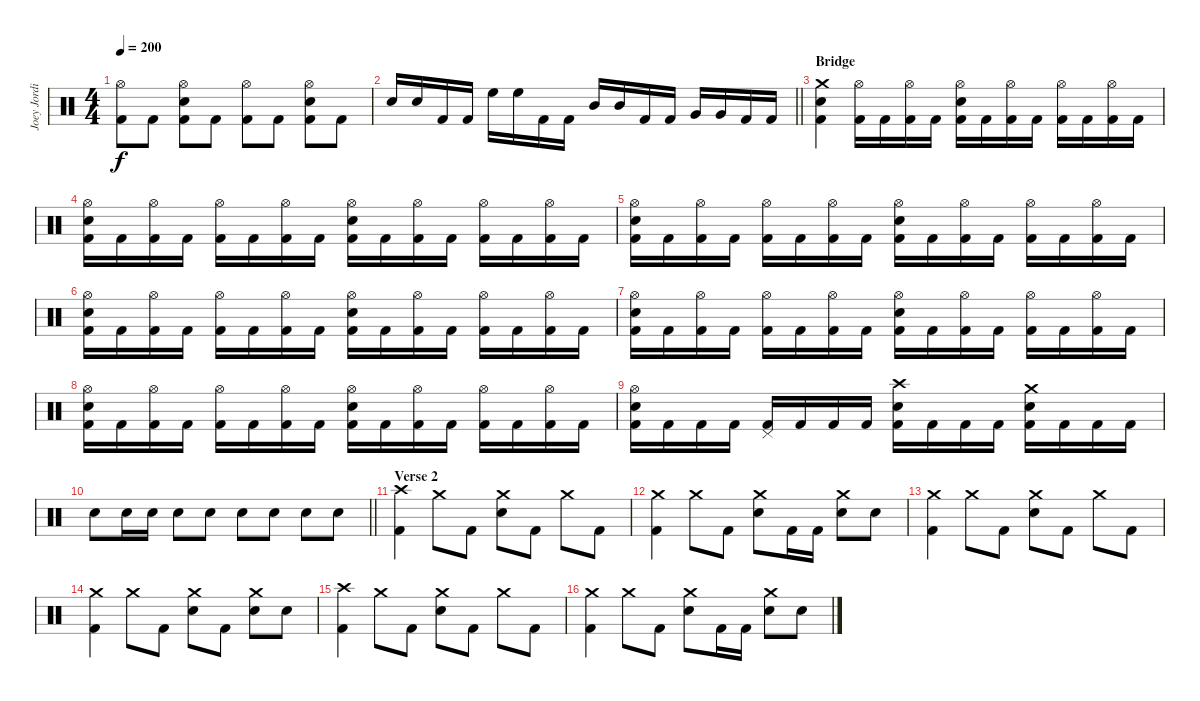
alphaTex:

\track ("Joey Jordison" "Joey Jordi") {instrument percussion}
\staff {score}
\articulation defaults
\ts (4 4)
\tempo 200
\clef neutral
\ks c
("Hi-Hat (open)" "Kick (hit) 2").8{dy f} "Kick (hit) 2".8 ("Hi-Hat (open)" "Electric Snare (hit)" "Kick (hit) 2").8 "Kick (hit) 2".8 ("Hi-Hat (open)" "Kick (hit) 2").8 "Kick (hit) 2".8 ("Hi-Hat (open)" "Electric Snare (hit)" "Kick (hit) 2").8 "Kick (hit) 2".8 |
\barLineRight lightlight "Electric Snare (hit)".16 "Electric Snare (hit)".16 "Kick (hit) 2".16 "Kick (hit) 2".16 "High Floor Tom (hit)".16 "High Floor Tom (hit)".16 "Kick (hit) 2".16 "Kick (hit) 2".16 "Mid Tom (hit)".16 "Mid Tom (hit)".16 "Kick (hit) 2".16 "Kick (hit) 2".16 "Very Low Tom (hit)".16 "Very Low Tom (hit)".16 "Kick (hit) 2".16 "Kick (hit) 2".16
|
\section ("" "Bridge")
("Crash medium (hit)" "Electric Snare (hit)" "Kick (hit) 2").4 ("Hi-Hat (open)" "Kick (hit) 2").16 "Kick (hit) 2".16 ("Hi-Hat (open)" "Kick (hit) 2").16 "Kick (hit) 2".16 ("Hi-Hat (open)" "Electric Snare (hit)" "Kick (hit) 2").16 "Kick (hit) 2".16 ("Hi-Hat (open)" "Kick (hit) 2").16 "Kick (hit) 2".16 ("Hi-Hat (open)" "Kick (hit) 2").16 "Kick (hit) 2".16 ("Hi-Hat (open)" "Kick (hit) 2").16 "Kick (hit) 2".16 |
("Hi-Hat (open)" "Electric Snare (hit)" "Kick (hit) 2").16 "Kick (hit) 2".16 ("Hi-Hat (open)" "Kick (hit) 2").16 "Kick (hit) 2".16 ("Hi-Hat (open)" "Kick (hit) 2").16 "Kick (hit) 2".16 ("Hi-Hat (open)" "Kick (hit) 2").16 "Kick (hit) 2".16 ("Hi-Hat (open)" "Electric Snare (hit)" "Kick (hit) 2").16 "Kick (hit) 2".16 ("Hi-Hat (open)" "Kick (hit) 2").16 "Kick (hit) 2".16 ("Hi-Hat (open)" "Kick (hit) 2").16 "Kick (hit) 2".16 ("Hi-Hat (open)" "Kick (hit) 2").16 "Kick (hit) 2".16 |
("Hi-Hat (open)" "Electric Snare (hit)" "Kick (hit) 2").16 "Kick (hit) 2".16 ("Hi-Hat (open)" "Kick (hit) 2").16 "Kick (hit) 2".16 ("Hi-Hat (open)" "Kick (hit) 2").16 "Kick (hit) 2".16 ("Hi-Hat (open)" "Kick (hit) 2").16 "Kick (hit) 2".16 ("Hi-Hat (open)" "Electric Snare (hit)" "Kick (hit) 2").16 "Kick (hit) 2".16 ("Hi-Hat (open)" "Kick (hit) 2").16 "Kick (hit) 2".16 ("Hi-Hat (open)" "Kick (hit) 2").16 "Kick (hit) 2".16 ("Hi-Hat (open)" "Kick (hit) 2").16 "Kick (hit) 2".16 |
("Hi-Hat (open)" "Electric Snare (hit)" "Kick (hit) 2").16 "Kick (hit) 2".16 ("Hi-Hat (open)" "Kick (hit) 2").16 "Kick (hit) 2".16 ("Hi-Hat (open)" "Kick (hit) 2").16 "Kick (hit) 2".16 ("Hi-Hat (open)" "Kick (hit) 2").16 "Kick (hit) 2".16 ("Hi-Hat (open)" "Electric Snare (hit)" "Kick (hit) 2").16 "Kick (hit) 2".16 ("Hi-Hat (open)" "Kick (hit) 2").16 "Kick (hit) 2".16 ("Hi-Hat (open)" "Kick (hit) 2").16 "Kick (hit) 2".16 ("Hi-Hat (open)" "Kick (hit) 2").16 "Kick (hit) 2".16 |
("Hi-Hat (open)" "Electric Snare (hit)" "Kick (hit) 2").16 "Kick (hit) 2".16 ("Hi-Hat (open)" "Kick (hit) 2").16 "Kick (hit) 2".16 ("Hi-Hat (open)" "Kick (hit) 2").16 "Kick (hit) 2".16 ("Hi-Hat (open)" "Kick (hit) 2").16 "Kick (hit) 2".16 ("Hi-Hat (open)" "Electric Snare (hit)" "Kick (hit) 2").16 "Kick (hit) 2".16 ("Hi-Hat (open)" "Kick (hit) 2").16 "Kick (hit) 2".16 ("Hi-Hat (open)" "Kick (hit) 2").16 "Kick (hit) 2".16 ("Hi-Hat (open)" "Kick (hit) 2").16 "Kick (hit) 2".16 |
("Hi-Hat (open)" "Electric Snare (hit)" "Kick (hit) 2").16 "Kick (hit) 2".16 ("Hi-Hat (open)" "Kick (hit) 2").16 "Kick (hit) 2".16 ("Hi-Hat (open)" "Kick (hit) 2").16 "Kick (hit) 2".16 ("Hi-Hat (open)" "Kick (hit) 2").16 "Kick (hit) 2".16 ("Hi-Hat (open)" "Electric Snare (hit)" "Kick (hit) 2").16 "Kick (hit) 2".16 ("Hi-Hat (open)" "Kick (hit) 2").16 "Kick (hit) 2".16 ("Hi-Hat (open)" "Kick (hit) 2").16 "Kick (hit) 2".16 ("Hi-Hat (open)" "Kick (hit) 2").16 "Kick (hit) 2".16 |
("Hi-Hat (open)" "Electric Snare (hit)" "Kick (hit) 2").16 "Kick (hit) 2".16 "Kick (hit) 2".16 "Kick (hit) 2".16 ("Pedal Hi-Hat (hit)" "Kick (hit) 2").16 "Kick (hit) 2".16 "Kick (hit) 2".16 "Kick (hit) 2".16 ("Crash high (hit)" "Electric Snare (hit)" "Kick (hit) 2").16 "Kick (hit) 2".16 "Kick (hit) 2".16 "Kick (hit) 2".16 ("Crash medium (hit)" "Electric Snare (hit)" "Kick (hit) 2").16 "Kick (hit) 2".16 "Kick (hit) 2".16 "Kick (hit) 2".16 |
\barLineRight lightlight "Electric Snare (hit)".8 "Electric Snare (hit)".16 "Electric Snare (hit)".16 "Electric Snare (hit)".8 "Electric Snare (hit)".8 "Electric Snare (hit)".8 "Electric Snare (hit)".8 "Electric Snare (hit)".8 "Electric Snare (hit)".8
|
\section ("" "Verse 2")
("Crash high (hit)" "Kick (hit) 2").4 "Crash medium (hit)".8 "Kick (hit) 2".8 ("Crash medium (hit)" "Electric Snare (hit)").8 "Kick (hit) 2".8 "Crash medium (hit)".8 "Kick (hit) 2".8 |
("Crash medium (hit)" "Kick (hit) 2").4 "Crash medium (hit)".8 "Kick (hit) 2".8 ("Crash medium (hit)" "Electric Snare (hit)").8 "Kick (hit) 2".16 "Kick (hit) 2".16 ("Crash medium (hit)" "Electric Snare (hit)").8 "Electric Snare (hit)".8 |
("Crash medium (hit)" "Kick (hit) 2").4 "Crash medium (hit)".8 "Kick (hit) 2".8 ("Crash medium (hit)" "Electric Snare (hit)").8 "Kick (hit) 2".8 "Crash medium (hit)".8 "Kick (hit) 2".8 |
("Crash medium (hit)" "Kick (hit) 2").4 "Crash medium (hit)".8 "Kick (hit) 2".8 ("Crash medium (hit)" "Electric Snare (hit)").8 "Kick (hit) 2".8 ("Crash medium (hit)" "Electric Snare (hit)").8 "Electric Snare (hit)".8 |
("Crash high (hit)" "Kick (hit) 2").4 "Crash medium (hit)".8 "Kick (hit) 2".8 ("Crash medium (hit)" "Electric Snare (hit)").8 "Kick (hit) 2".8 "Crash medium (hit)".8 "Kick (hit) 2".8 |
("Crash medium (hit)" "Kick (hit) 2").4 "Crash medium (hit)".8 "Kick (hit) 2".8 ("Crash medium (hit)" "Electric Snare (hit)").8 "Kick (hit) 2".16 "Kick (hit) 2".16 ("Crash medium (hit)" "Electric Snare (hit)").8 "Electric Snare (hit)".8
